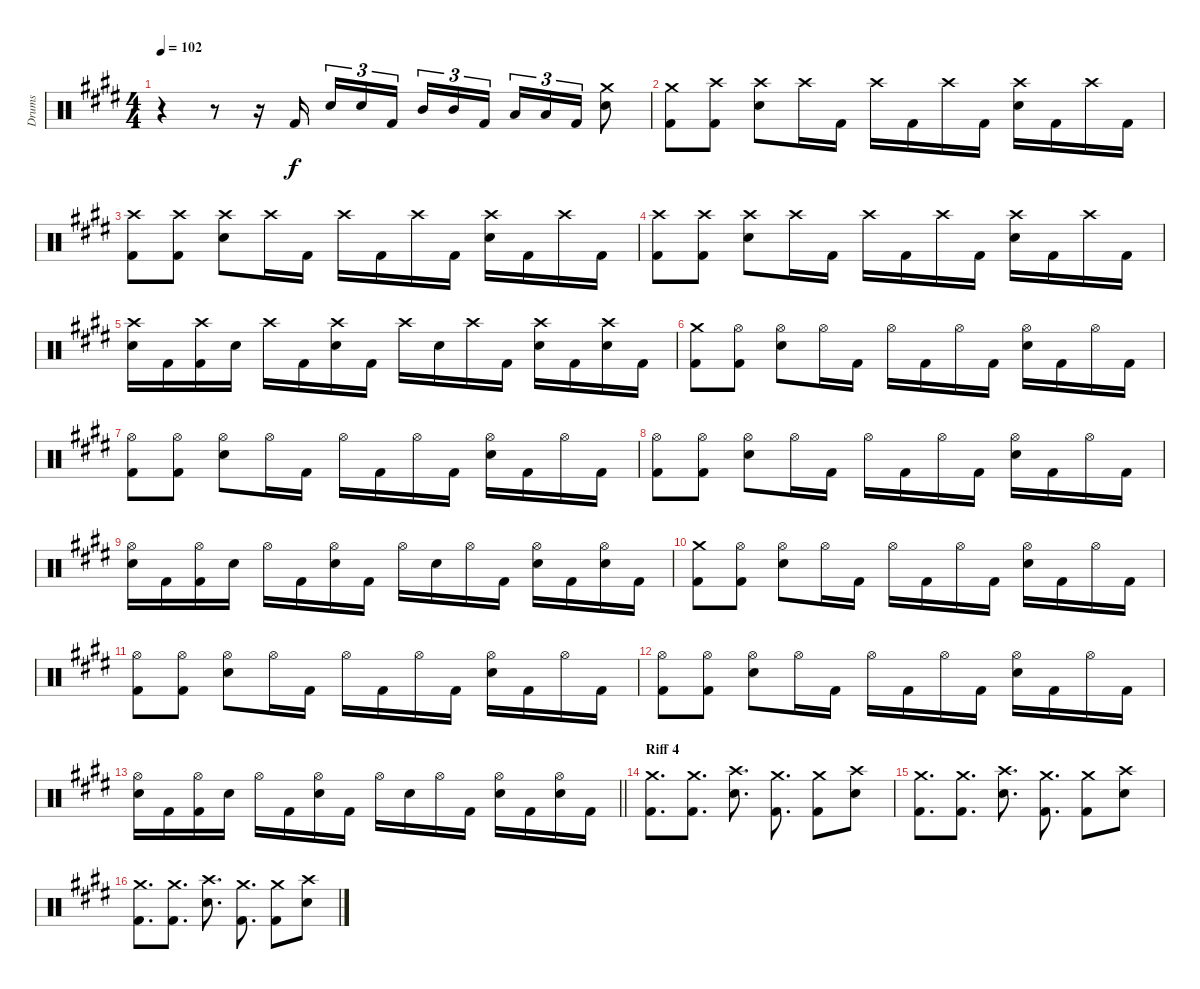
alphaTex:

\track ("Drums" "Drums") {instrument percussion}
\staff {score}
\articulation defaults
\ts (4 4)
\tempo 102
\clef neutral
\ks e
r.4{dy ppp} r.8 r.16 "Kick (hit) 2".16{dy f} "Electric Snare (hit)".16{tu (3 2)} "Electric Snare (hit)".16{tu (3 2)} "Kick (hit) 2".16{tu (3 2) beam splitsecondary} "Mid Tom (hit)".16{tu (3 2)} "Mid Tom (hit)".16{tu (3 2)} "Kick (hit) 2".16{tu (3 2)} "Low Tom (hit)".16{tu (3 2)} "Low Tom (hit)".16{tu (3 2)} "Kick (hit) 2".16{tu (3 2)} ("Electric Snare (hit)" "Crash medium (hit)").8 |
("Crash medium (hit)" "Kick (hit) 2").8 ("Crash high (hit)" "Kick (hit) 2").8 ("Crash high (hit)" "Electric Snare (hit)").8 "Crash high (hit)".16 "Kick (hit) 2".16 "Crash high (hit)".16 "Kick (hit) 2".16 "Crash high (hit)".16 "Kick (hit) 2".16 ("Electric Snare (hit)" "Crash high (hit)").16 "Kick (hit) 2".16 "Crash high (hit)".16 "Kick (hit) 2".16 |
("Crash high (hit)" "Kick (hit) 2").8 ("Crash high (hit)" "Kick (hit) 2").8 ("Crash high (hit)" "Electric Snare (hit)").8 "Crash high (hit)".16 "Kick (hit) 2".16 "Crash high (hit)".16 "Kick (hit) 2".16 "Crash high (hit)".16 "Kick (hit) 2".16 ("Electric Snare (hit)" "Crash high (hit)").16 "Kick (hit) 2".16 "Crash high (hit)".16 "Kick (hit) 2".16 |
("Crash high (hit)" "Kick (hit) 2").8 ("Crash high (hit)" "Kick (hit) 2").8 ("Crash high (hit)" "Electric Snare (hit)").8 "Crash high (hit)".16 "Kick (hit) 2".16 "Crash high (hit)".16 "Kick (hit) 2".16 "Crash high (hit)".16 "Kick (hit) 2".16 ("Electric Snare (hit)" "Crash high (hit)").16 "Kick (hit) 2".16 "Crash high (hit)".16 "Kick (hit) 2".16 |
("Electric Snare (hit)" "Crash high (hit)").16 "Kick (hit) 2".16 ("Kick (hit) 2" "Crash high (hit)").16 "Electric Snare (hit)".16 "Crash high (hit)".16 "Kick (hit) 2".16 ("Electric Snare (hit)" "Crash high (hit)").16 "Kick (hit) 2".16 "Crash high (hit)".16 "Electric Snare (hit)".16 "Crash high (hit)".16 "Kick (hit) 2".16 ("Electric Snare (hit)" "Crash high (hit)").16 "Kick (hit) 2".16 ("Electric Snare (hit)" "Crash high (hit)").16 "Kick (hit) 2".16 |
("Crash medium (hit)" "Kick (hit) 2").8 ("Hi-Hat (open)" "Kick (hit) 2").8 ("Hi-Hat (open)" "Electric Snare (hit)").8 "Hi-Hat (open)".16 "Kick (hit) 2".16 "Hi-Hat (open)".16 "Kick (hit) 2".16 "Hi-Hat (open)".16 "Kick (hit) 2".16 ("Electric Snare (hit)" "Hi-Hat (open)").16 "Kick (hit) 2".16 "Hi-Hat (open)".16 "Kick (hit) 2".16 |
("Hi-Hat (open)" "Kick (hit) 2").8 ("Hi-Hat (open)" "Kick (hit) 2").8 ("Hi-Hat (open)" "Electric Snare (hit)").8 "Hi-Hat (open)".16 "Kick (hit) 2".16 "Hi-Hat (open)".16 "Kick (hit) 2".16 "Hi-Hat (open)".16 "Kick (hit) 2".16 ("Electric Snare (hit)" "Hi-Hat (open)").16 "Kick (hit) 2".16 "Hi-Hat (open)".16 "Kick (hit) 2".16 |
("Hi-Hat (open)" "Kick (hit) 2").8 ("Hi-Hat (open)" "Kick (hit) 2").8 ("Hi-Hat (open)" "Electric Snare (hit)").8 "Hi-Hat (open)".16 "Kick (hit) 2".16 "Hi-Hat (open)".16 "Kick (hit) 2".16 "Hi-Hat (open)".16 "Kick (hit) 2".16 ("Electric Snare (hit)" "Hi-Hat (open)").16 "Kick (hit) 2".16 "Hi-Hat (open)".16 "Kick (hit) 2".16 |
("Electric Snare (hit)" "Hi-Hat (open)").16 "Kick (hit) 2".16 ("Kick (hit) 2" "Hi-Hat (open)").16 "Electric Snare (hit)".16 "Hi-Hat (open)".16 "Kick (hit) 2".16 ("Electric Snare (hit)" "Hi-Hat (open)").16 "Kick (hit) 2".16 "Hi-Hat (open)".16 "Electric Snare (hit)".16 "Hi-Hat (open)".16 "Kick (hit) 2".16 ("Electric Snare (hit)" "Hi-Hat (open)").16 "Kick (hit) 2".16 ("Electric Snare (hit)" "Hi-Hat (open)").16 "Kick (hit) 2".16 |
("Crash medium (hit)" "Kick (hit) 2").8 ("Hi-Hat (open)" "Kick (hit) 2").8 ("Hi-Hat (open)" "Electric Snare (hit)").8 "Hi-Hat (open)".16 "Kick (hit) 2".16 "Hi-Hat (open)".16 "Kick (hit) 2".16 "Hi-Hat (open)".16 "Kick (hit) 2".16 ("Electric Snare (hit)" "Hi-Hat (open)").16 "Kick (hit) 2".16 "Hi-Hat (open)".16 "Kick (hit) 2".16 |
("Hi-Hat (open)" "Kick (hit) 2").8 ("Hi-Hat (open)" "Kick (hit) 2").8 ("Hi-Hat (open)" "Electric Snare (hit)").8 "Hi-Hat (open)".16 "Kick (hit) 2".16 "Hi-Hat (open)".16 "Kick (hit) 2".16 "Hi-Hat (open)".16 "Kick (hit) 2".16 ("Electric Snare (hit)" "Hi-Hat (open)").16 "Kick (hit) 2".16 "Hi-Hat (open)".16 "Kick (hit) 2".16 |
("Hi-Hat (open)" "Kick (hit) 2").8 ("Hi-Hat (open)" "Kick (hit) 2").8 ("Hi-Hat (open)" "Electric Snare (hit)").8 "Hi-Hat (open)".16 "Kick (hit) 2".16 "Hi-Hat (open)".16 "Kick (hit) 2".16 "Hi-Hat (open)".16 "Kick (hit) 2".16 ("Electric Snare (hit)" "Hi-Hat (open)").16 "Kick (hit) 2".16 "Hi-Hat (open)".16 "Kick (hit) 2".16 |
\barLineRight lightlight
("Electric Snare (hit)" "Hi-Hat (open)").16 "Kick (hit) 2".16 ("Kick (hit) 2" "Hi-Hat (open)").16 "Electric Snare (hit)".16 "Hi-Hat (open)".16 "Kick (hit) 2".16 ("Electric Snare (hit)" "Hi-Hat (open)").16 "Kick (hit) 2".16 "Hi-Hat (open)".16 "Electric Snare (hit)".16 "Hi-Hat (open)".16 "Kick (hit) 2".16 ("Electric Snare (hit)" "Hi-Hat (open)").16 "Kick (hit) 2".16 ("Electric Snare (hit)" "Hi-Hat (open)").16 "Kick (hit) 2".16 |
\section ("" "Riff 4")
("Crash medium (hit)" "Kick (hit) 2").8{d} ("Crash medium (hit)" "Kick (hit) 2").8{d} ("Crash high (hit)" "Electric Snare (hit)").8{d} ("Kick (hit) 2" "Crash medium (hit)").8{d} ("Crash medium (hit)" "Kick (hit) 2").8 ("Crash high (hit)" "Electric Snare (hit)").8 |
("Crash medium (hit)" "Kick (hit) 2").8{d} ("Crash medium (hit)" "Kick (hit) 2").8{d} ("Crash high (hit)" "Electric Snare (hit)").8{d} ("Kick (hit) 2" "Crash medium (hit)").8{d} ("Crash medium (hit)" "Kick (hit) 2").8 ("Crash high (hit)" "Electric Snare (hit)").8 |
("Crash medium (hit)" "Kick (hit) 2").8{d} ("Crash medium (hit)" "Kick (hit) 2").8{d} ("Crash high (hit)" "Electric Snare (hit)").8{d} ("Kick (hit) 2" "Crash medium (hit)").8{d} ("Crash medium (hit)" "Kick (hit) 2").8 ("Crash high (hit)" "Electric Snare (hit)").8
